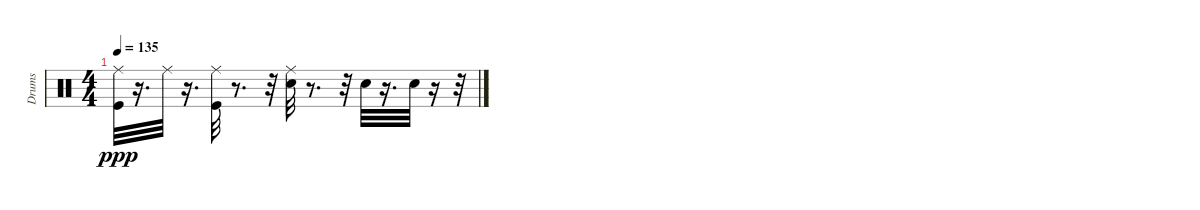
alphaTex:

\track ("Drums" "Drums") {instrument percussion}
\staff {score}
\articulation defaults
\ts (4 4)
\tempo 135
\clef neutral
\ks c
("Kick (hit)" "Ride (middle)").32{dy ppp} r.16{d} "Ride (middle)".32 r.16{d} ("Kick (hit)" "Ride (middle)").32 r.8{d} r.32 ("Snare (hit) 2" "Ride (middle)").32 r.8{d} r.32 "Snare (hit) 2".32 r.16{d} "Snare (hit) 2".32 r.16 r.32
